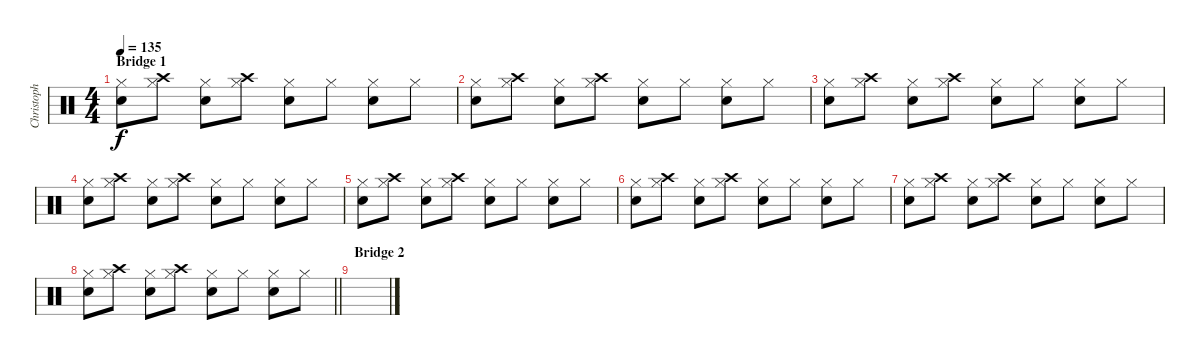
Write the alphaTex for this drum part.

\track ("Christoph Schneider" "Christoph ") {instrument percussion}
\staff {score}
\articulation defaults
\ts (4 4)
\section ("" "Bridge 1")
\tempo 135
\clef neutral
\ks c
("Hi-Hat (closed)" "Electric Snare (hit)").8{dy f} ("Crash high (hit)" "Hi-Hat (closed)").8 ("Hi-Hat (closed)" "Electric Snare (hit)").8 ("Crash high (hit)" "Hi-Hat (closed)").8 ("Hi-Hat (closed)" "Electric Snare (hit)").8 "Hi-Hat (closed)".8 ("Hi-Hat (closed)" "Electric Snare (hit)").8 "Hi-Hat (closed)".8 |
("Hi-Hat (closed)" "Electric Snare (hit)").8 ("Crash high (hit)" "Hi-Hat (closed)").8 ("Hi-Hat (closed)" "Electric Snare (hit)").8 ("Crash high (hit)" "Hi-Hat (closed)").8 ("Hi-Hat (closed)" "Electric Snare (hit)").8 "Hi-Hat (closed)".8 ("Hi-Hat (closed)" "Electric Snare (hit)").8 "Hi-Hat (closed)".8 |
("Hi-Hat (closed)" "Electric Snare (hit)").8 ("Crash high (hit)" "Hi-Hat (closed)").8 ("Hi-Hat (closed)" "Electric Snare (hit)").8 ("Crash high (hit)" "Hi-Hat (closed)").8 ("Hi-Hat (closed)" "Electric Snare (hit)").8 "Hi-Hat (closed)".8 ("Hi-Hat (closed)" "Electric Snare (hit)").8 "Hi-Hat (closed)".8 |
("Hi-Hat (closed)" "Electric Snare (hit)").8 ("Crash high (hit)" "Hi-Hat (closed)").8 ("Hi-Hat (closed)" "Electric Snare (hit)").8 ("Crash high (hit)" "Hi-Hat (closed)").8 ("Hi-Hat (closed)" "Electric Snare (hit)").8 "Hi-Hat (closed)".8 ("Hi-Hat (closed)" "Electric Snare (hit)").8 "Hi-Hat (closed)".8 |
("Hi-Hat (closed)" "Electric Snare (hit)").8 ("Crash high (hit)" "Hi-Hat (closed)").8 ("Hi-Hat (closed)" "Electric Snare (hit)").8 ("Crash high (hit)" "Hi-Hat (closed)").8 ("Hi-Hat (closed)" "Electric Snare (hit)").8 "Hi-Hat (closed)".8 ("Hi-Hat (closed)" "Electric Snare (hit)").8 "Hi-Hat (closed)".8 |
("Hi-Hat (closed)" "Electric Snare (hit)").8 ("Crash high (hit)" "Hi-Hat (closed)").8 ("Hi-Hat (closed)" "Electric Snare (hit)").8 ("Crash high (hit)" "Hi-Hat (closed)").8 ("Hi-Hat (closed)" "Electric Snare (hit)").8 "Hi-Hat (closed)".8 ("Hi-Hat (closed)" "Electric Snare (hit)").8 "Hi-Hat (closed)".8 |
("Hi-Hat (closed)" "Electric Snare (hit)").8 ("Crash high (hit)" "Hi-Hat (closed)").8 ("Hi-Hat (closed)" "Electric Snare (hit)").8 ("Crash high (hit)" "Hi-Hat (closed)").8 ("Hi-Hat (closed)" "Electric Snare (hit)").8 "Hi-Hat (closed)".8 ("Hi-Hat (closed)" "Electric Snare (hit)").8 "Hi-Hat (closed)".8 |
\barLineRight lightlight
("Hi-Hat (closed)" "Electric Snare (hit)").8 ("Crash high (hit)" "Hi-Hat (closed)").8 ("Hi-Hat (closed)" "Electric Snare (hit)").8 ("Crash high (hit)" "Hi-Hat (closed)").8 ("Hi-Hat (closed)" "Electric Snare (hit)").8 "Hi-Hat (closed)".8 ("Hi-Hat (closed)" "Electric Snare (hit)").8 "Hi-Hat (closed)".8 |
\section ("" "Bridge 2")
